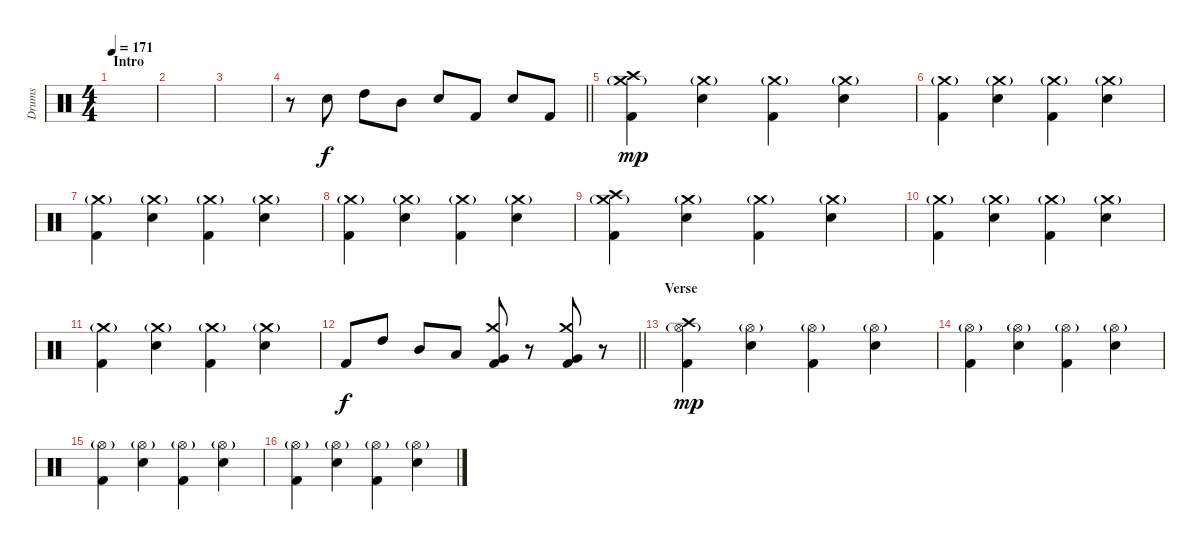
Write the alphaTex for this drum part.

\track ("Drums" "Drums") {instrument percussion}
\staff {score}
\articulation defaults
\ts (4 4)
\section ("" "Intro")
\tempo 171
\clef neutral
\ks c
|
|
|
\barLineRight lightlight
r.8 "Snare (hit) 2".8 "High Tom (hit)".8 "Mid Tom (hit)".8 "Snare (hit) 2".8 "Kick (hit) 2".8 "Snare (hit) 2".8 "Kick (hit) 2".8 |
\section ("" "")
("Kick (hit) 2" "Crash medium (hit)"{g} "Crash high (hit)").4{dy mp} ("Snare (hit) 2" "Crash medium (hit)"{g}).4 ("Kick (hit) 2" "Crash medium (hit)"{g}).4 ("Snare (hit) 2" "Crash medium (hit)"{g}).4 |
("Kick (hit) 2" "Crash medium (hit)"{g}).4 ("Snare (hit) 2" "Crash medium (hit)"{g}).4 ("Kick (hit) 2" "Crash medium (hit)"{g}).4 ("Snare (hit) 2" "Crash medium (hit)"{g}).4 |
("Kick (hit) 2" "Crash medium (hit)"{g}).4 ("Snare (hit) 2" "Crash medium (hit)"{g}).4 ("Kick (hit) 2" "Crash medium (hit)"{g}).4 ("Snare (hit) 2" "Crash medium (hit)"{g}).4 |
("Kick (hit) 2" "Crash medium (hit)"{g}).4 ("Snare (hit) 2" "Crash medium (hit)"{g}).4 ("Kick (hit) 2" "Crash medium (hit)"{g}).4 ("Snare (hit) 2" "Crash medium (hit)"{g}).4 |
("Kick (hit) 2" "Crash medium (hit)"{g} "Crash high (hit)").4 ("Snare (hit) 2" "Crash medium (hit)"{g}).4 ("Kick (hit) 2" "Crash medium (hit)"{g}).4 ("Snare (hit) 2" "Crash medium (hit)"{g}).4 |
("Kick (hit) 2" "Crash medium (hit)"{g}).4 ("Snare (hit) 2" "Crash medium (hit)"{g}).4 ("Kick (hit) 2" "Crash medium (hit)"{g}).4 ("Snare (hit) 2" "Crash medium (hit)"{g}).4 |
("Kick (hit) 2" "Crash medium (hit)"{g}).4 ("Snare (hit) 2" "Crash medium (hit)"{g}).4 ("Kick (hit) 2" "Crash medium (hit)"{g}).4 ("Snare (hit) 2" "Crash medium (hit)"{g}).4 |
\barLineRight lightlight "Kick (hit) 2".8{dy f} "High Tom (hit)".8 "Mid Tom (hit)".8 "Low Tom (hit)".8
("Kick (hit) 2" "Very Low Tom (hit)" "Crash medium (hit)").8 r.8 ("Kick (hit) 2" "Very Low Tom (hit)" "Crash medium (hit)").8 r.8 |
\section ("" "Verse")
("Kick (hit) 2" "Hi-Hat (open)"{g} "Crash high (hit)").4{dy mp} ("Snare (hit) 2" "Hi-Hat (open)"{g}).4 ("Kick (hit) 2" "Hi-Hat (open)"{g}).4 ("Snare (hit) 2" "Hi-Hat (open)"{g}).4 |
("Kick (hit) 2" "Hi-Hat (open)"{g}).4 ("Snare (hit) 2" "Hi-Hat (open)"{g}).4 ("Kick (hit) 2" "Hi-Hat (open)"{g}).4 ("Snare (hit) 2" "Hi-Hat (open)"{g}).4 |
("Kick (hit) 2" "Hi-Hat (open)"{g}).4 ("Snare (hit) 2" "Hi-Hat (open)"{g}).4 ("Kick (hit) 2" "Hi-Hat (open)"{g}).4 ("Snare (hit) 2" "Hi-Hat (open)"{g}).4 |
("Kick (hit) 2" "Hi-Hat (open)"{g}).4 ("Snare (hit) 2" "Hi-Hat (open)"{g}).4 ("Kick (hit) 2" "Hi-Hat (open)"{g}).4 ("Snare (hit) 2" "Hi-Hat (open)"{g}).4
